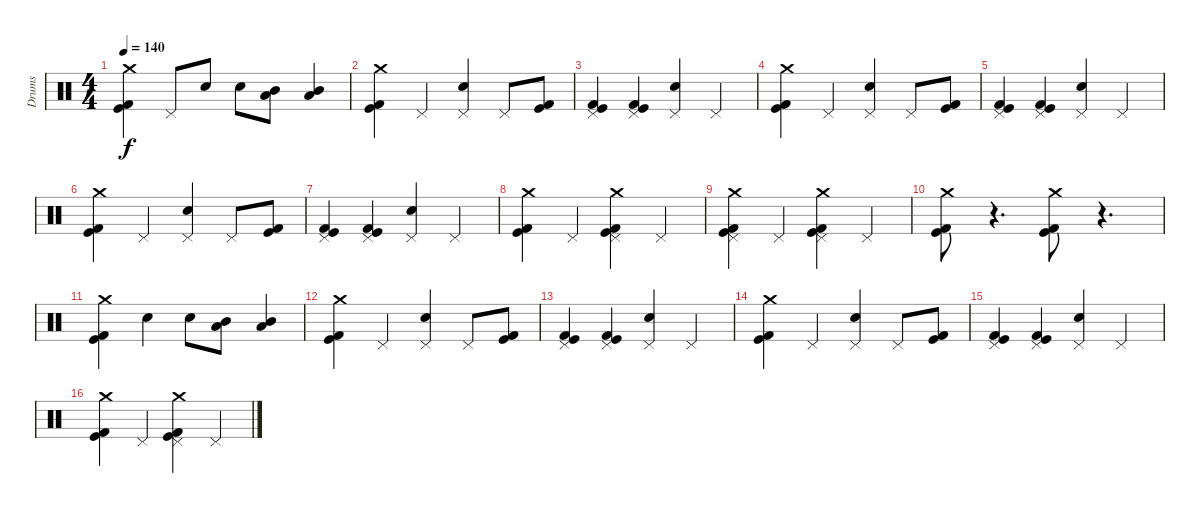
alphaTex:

\track ("Drums" "Drums") {instrument percussion}
\staff {score}
\articulation defaults
\ts (4 4)
\tempo 140
\clef neutral
\ks c
("Crash medium (hit)" "Kick (hit)" "Kick (hit) 2").4{dy f} "Pedal Hi-Hat (hit)".8 "Snare (hit) 2".8 "Snare (hit) 2".8 ("Low Tom (hit)" "Mid Tom (hit)").8 ("Low Tom (hit)" "Mid Tom (hit)").4 |
("Kick (hit)" "Crash medium (hit)" "Kick (hit) 2").4 "Pedal Hi-Hat (hit)".4 ("Pedal Hi-Hat (hit)" "Snare (hit) 2").4 "Pedal Hi-Hat (hit)".8 ("Kick (hit)" "Kick (hit) 2").8 |
("Pedal Hi-Hat (hit)" "Kick (hit)" "Kick (hit) 2").4 ("Pedal Hi-Hat (hit)" "Kick (hit)" "Kick (hit) 2").4 ("Pedal Hi-Hat (hit)" "Snare (hit) 2").4 "Pedal Hi-Hat (hit)".4 |
("Crash medium (hit)" "Kick (hit)" "Kick (hit) 2").4 "Pedal Hi-Hat (hit)".4 ("Pedal Hi-Hat (hit)" "Snare (hit) 2").4 "Pedal Hi-Hat (hit)".8 ("Kick (hit)" "Kick (hit) 2").8 |
("Pedal Hi-Hat (hit)" "Kick (hit)" "Kick (hit) 2").4 ("Pedal Hi-Hat (hit)" "Kick (hit)" "Kick (hit) 2").4 ("Pedal Hi-Hat (hit)" "Snare (hit) 2").4 "Pedal Hi-Hat (hit)".4 |
("Kick (hit)" "Crash medium (hit)" "Kick (hit) 2").4 "Pedal Hi-Hat (hit)".4 ("Pedal Hi-Hat (hit)" "Snare (hit) 2").4 "Pedal Hi-Hat (hit)".8 ("Kick (hit)" "Kick (hit) 2").8 |
("Pedal Hi-Hat (hit)" "Kick (hit)" "Kick (hit) 2").4 ("Pedal Hi-Hat (hit)" "Kick (hit)" "Kick (hit) 2").4 ("Pedal Hi-Hat (hit)" "Snare (hit) 2").4 "Pedal Hi-Hat (hit)".4 |
("Crash medium (hit)" "Kick (hit)" "Kick (hit) 2").4 "Pedal Hi-Hat (hit)".4 ("Crash medium (hit)" "Kick (hit)" "Kick (hit) 2" "Pedal Hi-Hat (hit)").4 "Pedal Hi-Hat (hit)".4 |
("Crash medium (hit)" "Kick (hit)" "Kick (hit) 2" "Pedal Hi-Hat (hit)").4 "Pedal Hi-Hat (hit)".4 ("Crash medium (hit)" "Kick (hit)" "Kick (hit) 2" "Pedal Hi-Hat (hit)").4 "Pedal Hi-Hat (hit)".4 |
("Crash medium (hit)" "Kick (hit) 2" "Kick (hit)").8 r.4{d} ("Crash medium (hit)" "Kick (hit) 2" "Kick (hit)").8 r.4{d} |
("Crash medium (hit)" "Kick (hit)" "Kick (hit) 2").4 "Snare (hit) 2".4 "Snare (hit) 2".8 ("Low Tom (hit)" "Mid Tom (hit)").8 ("Low Tom (hit)" "Mid Tom (hit)").4 |
("Kick (hit)" "Crash medium (hit)" "Kick (hit) 2").4 "Pedal Hi-Hat (hit)".4 ("Pedal Hi-Hat (hit)" "Snare (hit) 2").4 "Pedal Hi-Hat (hit)".8 ("Kick (hit)" "Kick (hit) 2").8 |
("Pedal Hi-Hat (hit)" "Kick (hit)" "Kick (hit) 2").4 ("Pedal Hi-Hat (hit)" "Kick (hit)" "Kick (hit) 2").4 ("Pedal Hi-Hat (hit)" "Snare (hit) 2").4 "Pedal Hi-Hat (hit)".4 |
("Kick (hit)" "Crash medium (hit)" "Kick (hit) 2").4 "Pedal Hi-Hat (hit)".4 ("Pedal Hi-Hat (hit)" "Snare (hit) 2").4 "Pedal Hi-Hat (hit)".8 ("Kick (hit)" "Kick (hit) 2").8 |
("Pedal Hi-Hat (hit)" "Kick (hit)" "Kick (hit) 2").4 ("Pedal Hi-Hat (hit)" "Kick (hit)" "Kick (hit) 2").4 ("Pedal Hi-Hat (hit)" "Snare (hit) 2").4 "Pedal Hi-Hat (hit)".4 |
("Crash medium (hit)" "Kick (hit) 2" "Kick (hit)").4 "Pedal Hi-Hat (hit)".4 ("Crash medium (hit)" "Kick (hit) 2" "Kick (hit)" "Pedal Hi-Hat (hit)").4 "Pedal Hi-Hat (hit)".4
